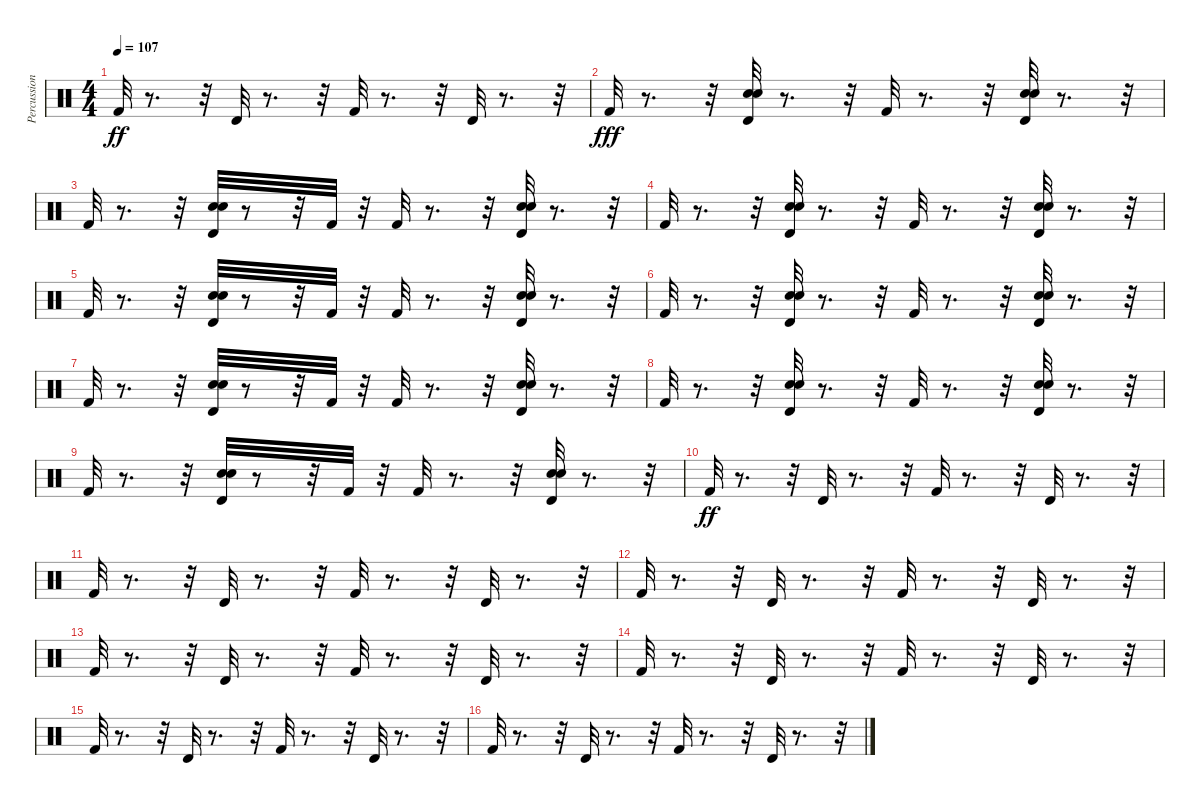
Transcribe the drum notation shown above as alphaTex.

\track ("Percussion" "Percussion") {instrument percussion}
\staff {score}
\articulation defaults
\ts (4 4)
\tempo 107
\clef neutral
\ks c "Kick (hit) 2".32{dy ff}
r.8{d} r.32 "Timbale high (hit)".32 r.8{d} r.32 "Kick (hit) 2".32 r.8{d} r.32 "Timbale high (hit)".32 r.8{d} r.32 |
"Kick (hit) 2".32{dy fff} r.8{d} r.32 ("Timbale high (hit)" "Electric Snare (hit)" "Snare (hit) 2").32 r.8{d} r.32 "Kick (hit) 2".32 r.8{d} r.32 ("Timbale high (hit)" "Electric Snare (hit)" "Snare (hit) 2").32 r.8{d} r.32 |
"Kick (hit) 2".32 r.8{d} r.32 ("Timbale high (hit)" "Electric Snare (hit)" "Snare (hit) 2").32 r.8 r.32 "Kick (hit) 2".32 r.32 "Kick (hit) 2".32 r.8{d} r.32 ("Timbale high (hit)" "Electric Snare (hit)" "Snare (hit) 2").32 r.8{d} r.32 |
"Kick (hit) 2".32 r.8{d} r.32 ("Timbale high (hit)" "Electric Snare (hit)" "Snare (hit) 2").32 r.8{d} r.32 "Kick (hit) 2".32 r.8{d} r.32 ("Timbale high (hit)" "Electric Snare (hit)" "Snare (hit) 2").32 r.8{d} r.32 |
"Kick (hit) 2".32 r.8{d} r.32 ("Timbale high (hit)" "Electric Snare (hit)" "Snare (hit) 2").32 r.8 r.32 "Kick (hit) 2".32 r.32 "Kick (hit) 2".32 r.8{d} r.32 ("Timbale high (hit)" "Electric Snare (hit)" "Snare (hit) 2").32 r.8{d} r.32 |
"Kick (hit) 2".32 r.8{d} r.32 ("Timbale high (hit)" "Electric Snare (hit)" "Snare (hit) 2").32 r.8{d} r.32 "Kick (hit) 2".32 r.8{d} r.32 ("Timbale high (hit)" "Electric Snare (hit)" "Snare (hit) 2").32 r.8{d} r.32 |
"Kick (hit) 2".32 r.8{d} r.32 ("Timbale high (hit)" "Electric Snare (hit)" "Snare (hit) 2").32 r.8 r.32 "Kick (hit) 2".32 r.32 "Kick (hit) 2".32 r.8{d} r.32 ("Timbale high (hit)" "Electric Snare (hit)" "Snare (hit) 2").32 r.8{d} r.32 |
"Kick (hit) 2".32 r.8{d} r.32 ("Timbale high (hit)" "Electric Snare (hit)" "Snare (hit) 2").32 r.8{d} r.32 "Kick (hit) 2".32 r.8{d} r.32 ("Timbale high (hit)" "Electric Snare (hit)" "Snare (hit) 2").32 r.8{d} r.32 |
"Kick (hit) 2".32 r.8{d} r.32 ("Timbale high (hit)" "Electric Snare (hit)" "Snare (hit) 2").32 r.8 r.32 "Kick (hit) 2".32 r.32 "Kick (hit) 2".32 r.8{d} r.32 ("Timbale high (hit)" "Electric Snare (hit)" "Snare (hit) 2").32 r.8{d} r.32 |
"Kick (hit) 2".32{dy ff} r.8{d} r.32 "Timbale high (hit)".32 r.8{d} r.32 "Kick (hit) 2".32 r.8{d} r.32 "Timbale high (hit)".32 r.8{d} r.32 |
"Kick (hit) 2".32 r.8{d} r.32 "Timbale high (hit)".32 r.8{d} r.32 "Kick (hit) 2".32 r.8{d} r.32 "Timbale high (hit)".32 r.8{d} r.32 |
"Kick (hit) 2".32 r.8{d} r.32 "Timbale high (hit)".32 r.8{d} r.32 "Kick (hit) 2".32 r.8{d} r.32 "Timbale high (hit)".32 r.8{d} r.32 |
"Kick (hit) 2".32 r.8{d} r.32 "Timbale high (hit)".32 r.8{d} r.32 "Kick (hit) 2".32 r.8{d} r.32 "Timbale high (hit)".32 r.8{d} r.32 |
"Kick (hit) 2".32 r.8{d} r.32 "Timbale high (hit)".32 r.8{d} r.32 "Kick (hit) 2".32 r.8{d} r.32 "Timbale high (hit)".32 r.8{d} r.32 |
"Kick (hit) 2".32 r.8{d} r.32 "Timbale high (hit)".32 r.8{d} r.32 "Kick (hit) 2".32 r.8{d} r.32 "Timbale high (hit)".32 r.8{d} r.32 |
"Kick (hit) 2".32 r.8{d} r.32 "Timbale high (hit)".32 r.8{d} r.32 "Kick (hit) 2".32 r.8{d} r.32 "Timbale high (hit)".32 r.8{d} r.32
